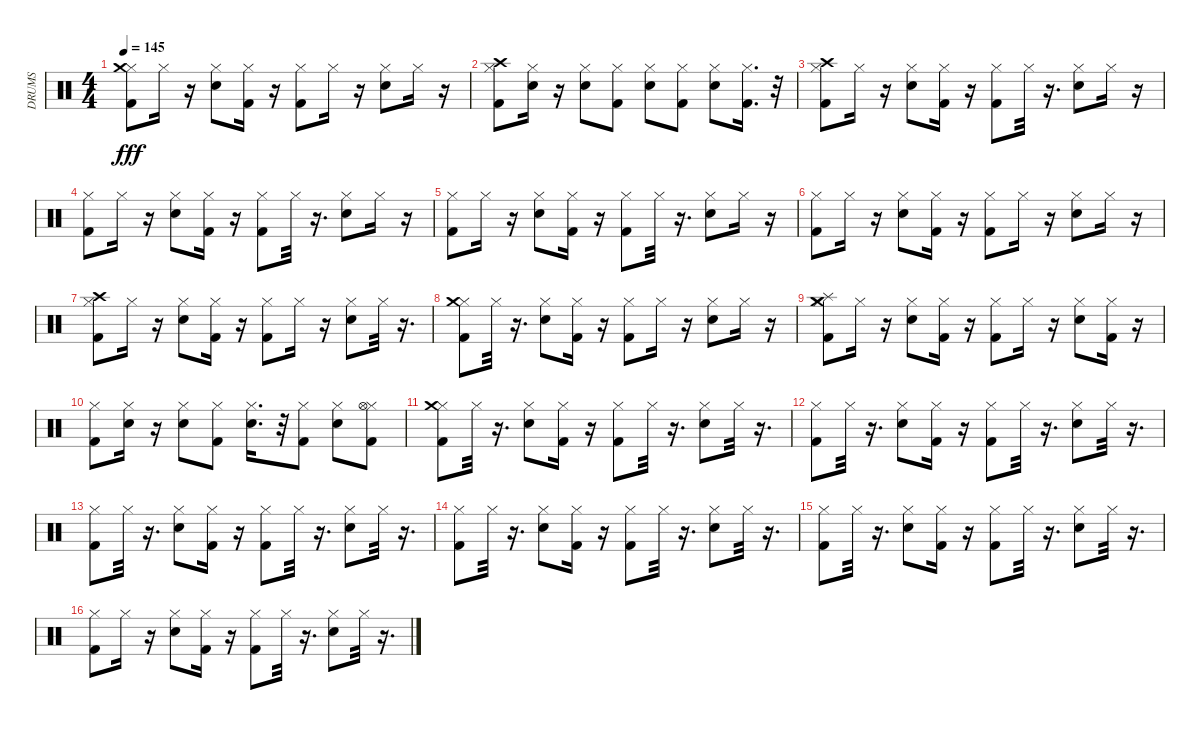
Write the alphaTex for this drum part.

\track ("DRUMS" "DRUMS") {instrument percussion}
\staff {score}
\articulation defaults
\ts (4 4)
\tempo 145
\clef neutral
\ks c
("Kick (hit) 2" "Hi-Hat (closed)" "Crash medium (hit)").8{dy fff} "Hi-Hat (closed)".16 r.16 ("Electric Snare (hit)" "Hi-Hat (closed)").8 ("Kick (hit) 2" "Hi-Hat (closed)").16 r.16 ("Kick (hit) 2" "Hi-Hat (closed)").8 "Hi-Hat (closed)".16 r.16 ("Electric Snare (hit)" "Hi-Hat (closed)").8 "Hi-Hat (closed)".16 r.16 |
("Kick (hit) 2" "Hi-Hat (closed)" "Crash high (hit)").8 ("Electric Snare (hit)" "Hi-Hat (closed)").16 r.16 ("Electric Snare (hit)" "Hi-Hat (closed)").8 ("Kick (hit) 2" "Hi-Hat (closed)").8 ("Electric Snare (hit)" "Hi-Hat (closed)").8 ("Kick (hit) 2" "Hi-Hat (closed)").8 ("Electric Snare (hit)" "Hi-Hat (closed)").8 ("Kick (hit) 2" "Hi-Hat (closed)").16{d} r.32 |
("Kick (hit) 2" "Hi-Hat (closed)" "Crash high (hit)").8 "Hi-Hat (closed)".16 r.16 ("Electric Snare (hit)" "Hi-Hat (closed)").8 ("Kick (hit) 2" "Hi-Hat (closed)").16 r.16 ("Kick (hit) 2" "Hi-Hat (closed)").8 "Hi-Hat (closed)".32 r.16{d} ("Electric Snare (hit)" "Hi-Hat (closed)").8 "Hi-Hat (closed)".16 r.16 |
("Kick (hit) 2" "Hi-Hat (closed)").8 "Hi-Hat (closed)".16 r.16 ("Electric Snare (hit)" "Hi-Hat (closed)").8 ("Kick (hit) 2" "Hi-Hat (closed)").16 r.16 ("Kick (hit) 2" "Hi-Hat (closed)").8 "Hi-Hat (closed)".32 r.16{d} ("Electric Snare (hit)" "Hi-Hat (closed)").8 "Hi-Hat (closed)".16 r.16 |
("Kick (hit) 2" "Hi-Hat (closed)").8 "Hi-Hat (closed)".16 r.16 ("Electric Snare (hit)" "Hi-Hat (closed)").8 ("Kick (hit) 2" "Hi-Hat (closed)").16 r.16 ("Kick (hit) 2" "Hi-Hat (closed)").8 "Hi-Hat (closed)".32 r.16{d} ("Electric Snare (hit)" "Hi-Hat (closed)").8 "Hi-Hat (closed)".16 r.16 |
("Kick (hit) 2" "Hi-Hat (closed)").8 "Hi-Hat (closed)".16 r.16 ("Electric Snare (hit)" "Hi-Hat (closed)").8 ("Kick (hit) 2" "Hi-Hat (closed)").16 r.16 ("Kick (hit) 2" "Hi-Hat (closed)").8 "Hi-Hat (closed)".16 r.16 ("Electric Snare (hit)" "Hi-Hat (closed)").8 "Hi-Hat (closed)".16 r.16 |
("Kick (hit) 2" "Hi-Hat (closed)" "Crash high (hit)").8 "Hi-Hat (closed)".16 r.16 ("Electric Snare (hit)" "Hi-Hat (closed)").8 ("Kick (hit) 2" "Hi-Hat (closed)").16 r.16 ("Kick (hit) 2" "Hi-Hat (closed)").8 "Hi-Hat (closed)".16 r.16 ("Electric Snare (hit)" "Hi-Hat (closed)").8 "Hi-Hat (closed)".32 r.16{d} |
("Kick (hit) 2" "Hi-Hat (closed)" "Crash medium (hit)").8 "Hi-Hat (closed)".32 r.16{d} ("Electric Snare (hit)" "Hi-Hat (closed)").8 ("Kick (hit) 2" "Hi-Hat (closed)").16 r.16 ("Kick (hit) 2" "Hi-Hat (closed)").8 "Hi-Hat (closed)".16 r.16 ("Electric Snare (hit)" "Hi-Hat (closed)").8 "Hi-Hat (closed)".16 r.16 |
("Kick (hit) 2" "Hi-Hat (closed)" "Splash (hit)" "Crash medium (hit)").8 "Hi-Hat (closed)".16 r.16 ("Electric Snare (hit)" "Hi-Hat (closed)").8 ("Kick (hit) 2" "Hi-Hat (closed)").16 r.16 ("Kick (hit) 2" "Hi-Hat (closed)").8 "Hi-Hat (closed)".16 r.16 ("Electric Snare (hit)" "Hi-Hat (closed)").8 ("Kick (hit) 2" "Hi-Hat (closed)").16 r.16 |
("Kick (hit) 2" "Hi-Hat (closed)").8 ("Electric Snare (hit)" "Hi-Hat (closed)").16 r.16 ("Electric Snare (hit)" "Hi-Hat (closed)").8 ("Kick (hit) 2" "Hi-Hat (closed)").8 ("Electric Snare (hit)" "Hi-Hat (closed)").16{d} r.32 ("Kick (hit) 2" "Hi-Hat (closed)").8 ("Electric Snare (hit)" "Hi-Hat (closed)").8 ("Kick (hit) 2" "Hi-Hat (closed)" "Hi-Hat (open)").8 |
("Kick (hit) 2" "Hi-Hat (closed)" "Crash medium (hit)").8 "Hi-Hat (closed)".32 r.16{d} ("Electric Snare (hit)" "Hi-Hat (closed)").8 ("Kick (hit) 2" "Hi-Hat (closed)").16 r.16 ("Kick (hit) 2" "Hi-Hat (closed)").8 "Hi-Hat (closed)".32 r.16{d} ("Electric Snare (hit)" "Hi-Hat (closed)").8 "Hi-Hat (closed)".32 r.16{d} |
("Kick (hit) 2" "Hi-Hat (closed)").8 "Hi-Hat (closed)".32 r.16{d} ("Electric Snare (hit)" "Hi-Hat (closed)").8 ("Kick (hit) 2" "Hi-Hat (closed)").16 r.16 ("Kick (hit) 2" "Hi-Hat (closed)").8 "Hi-Hat (closed)".32 r.16{d} ("Electric Snare (hit)" "Hi-Hat (closed)").8 "Hi-Hat (closed)".32 r.16{d} |
("Kick (hit) 2" "Hi-Hat (closed)").8 "Hi-Hat (closed)".32 r.16{d} ("Electric Snare (hit)" "Hi-Hat (closed)").8 ("Kick (hit) 2" "Hi-Hat (closed)").16 r.16 ("Kick (hit) 2" "Hi-Hat (closed)").8 "Hi-Hat (closed)".32 r.16{d} ("Electric Snare (hit)" "Hi-Hat (closed)").8 "Hi-Hat (closed)".32 r.16{d} |
("Kick (hit) 2" "Hi-Hat (closed)").8 "Hi-Hat (closed)".32 r.16{d} ("Electric Snare (hit)" "Hi-Hat (closed)").8 ("Kick (hit) 2" "Hi-Hat (closed)").16 r.16 ("Kick (hit) 2" "Hi-Hat (closed)").8 "Hi-Hat (closed)".32 r.16{d} ("Electric Snare (hit)" "Hi-Hat (closed)").8 "Hi-Hat (closed)".32 r.16{d} |
("Kick (hit) 2" "Hi-Hat (closed)").8 "Hi-Hat (closed)".32 r.16{d} ("Electric Snare (hit)" "Hi-Hat (closed)").8 ("Kick (hit) 2" "Hi-Hat (closed)").16 r.16 ("Kick (hit) 2" "Hi-Hat (closed)").8 "Hi-Hat (closed)".32 r.16{d} ("Electric Snare (hit)" "Hi-Hat (closed)").8 "Hi-Hat (closed)".32 r.16{d} |
("Kick (hit) 2" "Hi-Hat (closed)").8 "Hi-Hat (closed)".16 r.16 ("Electric Snare (hit)" "Hi-Hat (closed)").8 ("Kick (hit) 2" "Hi-Hat (closed)").16 r.16 ("Kick (hit) 2" "Hi-Hat (closed)").8 "Hi-Hat (closed)".32 r.16{d} ("Electric Snare (hit)" "Hi-Hat (closed)").8 "Hi-Hat (closed)".32 r.16{d}
